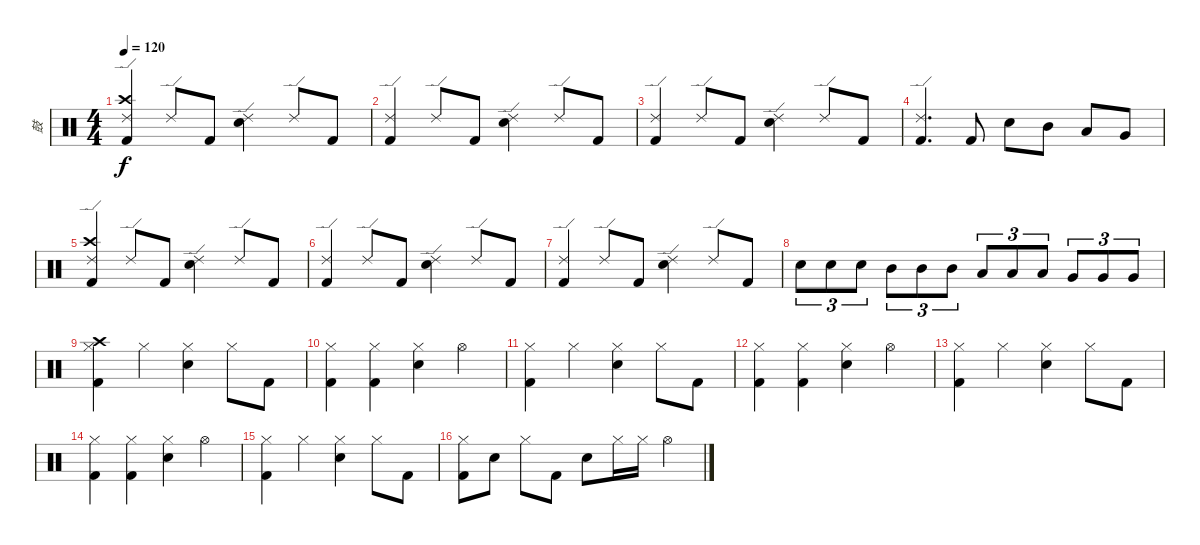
\track ("鼓" "鼓") {instrument percussion}
\staff {score}
\articulation defaults
\ts (4 4)
\tempo 120
\clef neutral
\ks c
("Ride (edge) 2" "Crash high (hit)" "Kick (hit) 2").4{dy f} "Ride (edge) 2".8 "Kick (hit) 2".8 ("Ride (edge) 2" "Electric Snare (hit)").4 "Ride (edge) 2".8 "Kick (hit) 2".8 |
("Ride (edge) 2" "Kick (hit) 2").4 "Ride (edge) 2".8 "Kick (hit) 2".8 ("Ride (edge) 2" "Electric Snare (hit)").4 "Ride (edge) 2".8 "Kick (hit) 2".8 |
("Ride (edge) 2" "Kick (hit) 2").4 "Ride (edge) 2".8 "Kick (hit) 2".8 ("Ride (edge) 2" "Electric Snare (hit)").4 "Ride (edge) 2".8 "Kick (hit) 2".8 |
("Ride (edge) 2" "Kick (hit) 2").4{d} "Kick (hit) 2".8 "Electric Snare (hit)".8 "Mid Tom (hit)".8 "Low Tom (hit)".8 "Very Low Tom (hit)".8 |
("Ride (edge) 2" "Crash high (hit)" "Kick (hit) 2").4 "Ride (edge) 2".8 "Kick (hit) 2".8 ("Ride (edge) 2" "Electric Snare (hit)").4 "Ride (edge) 2".8 "Kick (hit) 2".8 |
("Ride (edge) 2" "Kick (hit) 2").4 "Ride (edge) 2".8 "Kick (hit) 2".8 ("Ride (edge) 2" "Electric Snare (hit)").4 "Ride (edge) 2".8 "Kick (hit) 2".8 |
("Ride (edge) 2" "Kick (hit) 2").4 "Ride (edge) 2".8 "Kick (hit) 2".8 ("Ride (edge) 2" "Electric Snare (hit)").4 "Ride (edge) 2".8 "Kick (hit) 2".8 |
"Electric Snare (hit)".8{tu (3 2)} "Electric Snare (hit)".8{tu (3 2)} "Electric Snare (hit)".8{tu (3 2)} "Mid Tom (hit)".8{tu (3 2)} "Mid Tom (hit)".8{tu (3 2)} "Mid Tom (hit)".8{tu (3 2)} "Low Tom (hit)".8{tu (3 2)} "Low Tom (hit)".8{tu (3 2)} "Low Tom (hit)".8{tu (3 2)} "Very Low Tom (hit)".8{tu (3 2)} "Very Low Tom (hit)".8{tu (3 2)} "Very Low Tom (hit)".8{tu (3 2)} |
("Hi-Hat (closed)" "Crash high (hit)" "Kick (hit) 2").4 "Hi-Hat (closed)".4 ("Hi-Hat (closed)" "Electric Snare (hit)").4 "Hi-Hat (closed)".8 "Kick (hit) 2".8 |
("Hi-Hat (closed)" "Kick (hit) 2").4 ("Hi-Hat (closed)" "Kick (hit) 2").4 ("Hi-Hat (closed)" "Electric Snare (hit)").4 "Hi-Hat (open)".4 |
("Hi-Hat (closed)" "Kick (hit) 2").4 "Hi-Hat (closed)".4 ("Hi-Hat (closed)" "Electric Snare (hit)").4 "Hi-Hat (closed)".8 "Kick (hit) 2".8 |
("Hi-Hat (closed)" "Kick (hit) 2").4 ("Hi-Hat (closed)" "Kick (hit) 2").4 ("Hi-Hat (closed)" "Electric Snare (hit)").4 "Hi-Hat (open)".4 |
("Hi-Hat (closed)" "Kick (hit) 2").4 "Hi-Hat (closed)".4 ("Hi-Hat (closed)" "Electric Snare (hit)").4 "Hi-Hat (closed)".8 "Kick (hit) 2".8 |
("Hi-Hat (closed)" "Kick (hit) 2").4 ("Hi-Hat (closed)" "Kick (hit) 2").4 ("Hi-Hat (closed)" "Electric Snare (hit)").4 "Hi-Hat (open)".4 |
("Hi-Hat (closed)" "Kick (hit) 2").4 "Hi-Hat (closed)".4 ("Hi-Hat (closed)" "Electric Snare (hit)").4 "Hi-Hat (closed)".8 "Kick (hit) 2".8 |
("Hi-Hat (closed)" "Kick (hit) 2").8 "Electric Snare (hit)".8 "Hi-Hat (closed)".8 "Kick (hit) 2".8 "Electric Snare (hit)".8 "Hi-Hat (closed)".16 "Hi-Hat (closed)".16 "Hi-Hat (open)".4
